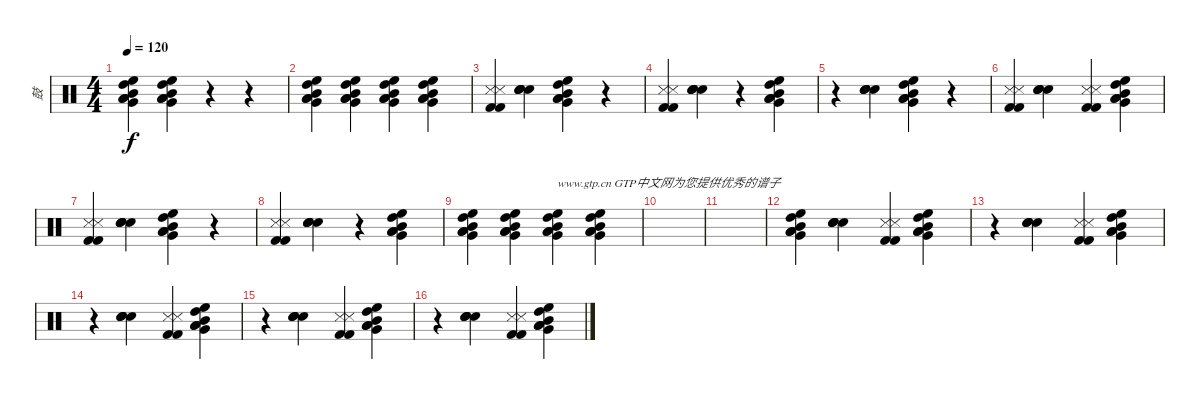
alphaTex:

\track ("鼓" "鼓") {instrument percussion}
\staff {score}
\articulation defaults
\ts (4 4)
\tempo 120
\clef neutral
\ks c
("High Floor Tom (hit)" "High Tom (hit)" "Mid Tom (hit)" "Low Tom (hit)" "Very Low Tom (hit)" "Low Floor Tom (hit)").4{dy f} ("High Floor Tom (hit)" "High Tom (hit)" "Mid Tom (hit)" "Low Tom (hit)" "Very Low Tom (hit)" "Low Floor Tom (hit)").4 r.4 r.4 |
("High Floor Tom (hit)" "High Tom (hit)" "Mid Tom (hit)" "Low Tom (hit)" "Very Low Tom (hit)" "Low Floor Tom (hit)").4 ("High Floor Tom (hit)" "High Tom (hit)" "Mid Tom (hit)" "Low Tom (hit)" "Very Low Tom (hit)" "Low Floor Tom (hit)").4 ("High Floor Tom (hit)" "High Tom (hit)" "Mid Tom (hit)" "Low Tom (hit)" "Very Low Tom (hit)" "Low Floor Tom (hit)").4 ("High Floor Tom (hit)" "High Tom (hit)" "Mid Tom (hit)" "Low Tom (hit)" "Very Low Tom (hit)" "Low Floor Tom (hit)").4 |
("Snare (side stick) 3" "Kick (hit) 2" "Kick (hit) 2" "Snare (side stick) 3").4 ("Hand Clap (hit)" "Hand Clap (hit)" "Hand Clap (hit)" "Hand Clap (hit)").4 ("High Floor Tom (hit)" "High Tom (hit)" "Mid Tom (hit)" "Low Tom (hit)" "Very Low Tom (hit)" "Low Floor Tom (hit)").4 r.4 |
("Snare (side stick) 3" "Kick (hit) 2" "Kick (hit) 2" "Snare (side stick) 3").4 ("Hand Clap (hit)" "Hand Clap (hit)" "Hand Clap (hit)" "Hand Clap (hit)").4 r.4 ("High Floor Tom (hit)" "High Tom (hit)" "Mid Tom (hit)" "Low Tom (hit)" "Very Low Tom (hit)" "Low Floor Tom (hit)").4 |
r.4 ("Hand Clap (hit)" "Hand Clap (hit)" "Hand Clap (hit)" "Hand Clap (hit)").4 ("High Floor Tom (hit)" "High Tom (hit)" "Mid Tom (hit)" "Low Tom (hit)" "Very Low Tom (hit)" "Low Floor Tom (hit)").4 r.4 |
("Snare (side stick) 3" "Kick (hit) 2" "Kick (hit) 2" "Snare (side stick) 3").4 ("Hand Clap (hit)" "Hand Clap (hit)" "Hand Clap (hit)" "Hand Clap (hit)").4 ("Snare (side stick) 3" "Kick (hit) 2" "Kick (hit) 2" "Snare (side stick) 3").4 ("High Floor Tom (hit)" "High Tom (hit)" "Mid Tom (hit)" "Low Tom (hit)" "Very Low Tom (hit)" "Low Floor Tom (hit)").4 |
("Snare (side stick) 3" "Kick (hit) 2" "Kick (hit) 2" "Snare (side stick) 3").4 ("Hand Clap (hit)" "Hand Clap (hit)" "Hand Clap (hit)" "Hand Clap (hit)").4 ("High Floor Tom (hit)" "High Tom (hit)" "Mid Tom (hit)" "Low Tom (hit)" "Very Low Tom (hit)" "Low Floor Tom (hit)").4 r.4 |
("Snare (side stick) 3" "Kick (hit) 2" "Kick (hit) 2" "Snare (side stick) 3").4 ("Hand Clap (hit)" "Hand Clap (hit)" "Hand Clap (hit)" "Hand Clap (hit)").4 r.4 ("High Floor Tom (hit)" "High Tom (hit)" "Mid Tom (hit)" "Low Tom (hit)" "Very Low Tom (hit)" "Low Floor Tom (hit)").4 |
("High Floor Tom (hit)" "High Tom (hit)" "Mid Tom (hit)" "Low Tom (hit)" "Very Low Tom (hit)" "Low Floor Tom (hit)").4 ("High Floor Tom (hit)" "High Tom (hit)" "Mid Tom (hit)" "Low Tom (hit)" "Very Low Tom (hit)" "Low Floor Tom (hit)").4 ("High Floor Tom (hit)" "High Tom (hit)" "Mid Tom (hit)" "Low Tom (hit)" "Very Low Tom (hit)" "Low Floor Tom (hit)").4{txt "www.gtp.cn GTP中文网为您提供优秀的谱子"} ("High Floor Tom (hit)" "High Tom (hit)" "Mid Tom (hit)" "Low Tom (hit)" "Very Low Tom (hit)" "Low Floor Tom (hit)").4 |
|
|
("High Floor Tom (hit)" "High Tom (hit)" "Mid Tom (hit)" "Low Tom (hit)" "Very Low Tom (hit)" "Low Floor Tom (hit)").4 ("Hand Clap (hit)" "Hand Clap (hit)" "Hand Clap (hit)" "Hand Clap (hit)").4 ("Snare (side stick) 3" "Kick (hit) 2" "Kick (hit) 2" "Snare (side stick) 3").4 ("High Floor Tom (hit)" "High Tom (hit)" "Mid Tom (hit)" "Low Tom (hit)" "Very Low Tom (hit)" "Low Floor Tom (hit)").4 |
r.4 ("Hand Clap (hit)" "Hand Clap (hit)" "Hand Clap (hit)" "Hand Clap (hit)").4 ("Snare (side stick) 3" "Kick (hit) 2" "Kick (hit) 2" "Snare (side stick) 3").4 ("High Floor Tom (hit)" "High Tom (hit)" "Mid Tom (hit)" "Low Tom (hit)" "Very Low Tom (hit)" "Low Floor Tom (hit)").4 |
r.4 ("Hand Clap (hit)" "Hand Clap (hit)" "Hand Clap (hit)" "Hand Clap (hit)").4 ("Snare (side stick) 3" "Kick (hit) 2" "Kick (hit) 2" "Snare (side stick) 3").4 ("High Floor Tom (hit)" "High Tom (hit)" "Mid Tom (hit)" "Low Tom (hit)" "Very Low Tom (hit)" "Low Floor Tom (hit)").4 |
r.4 ("Hand Clap (hit)" "Hand Clap (hit)" "Hand Clap (hit)" "Hand Clap (hit)").4 ("Snare (side stick) 3" "Kick (hit) 2" "Kick (hit) 2" "Snare (side stick) 3").4 ("High Floor Tom (hit)" "High Tom (hit)" "Mid Tom (hit)" "Low Tom (hit)" "Very Low Tom (hit)" "Low Floor Tom (hit)").4 |
r.4 ("Hand Clap (hit)" "Hand Clap (hit)" "Hand Clap (hit)" "Hand Clap (hit)").4 ("Snare (side stick) 3" "Kick (hit) 2" "Kick (hit) 2" "Snare (side stick) 3").4 ("High Floor Tom (hit)" "High Tom (hit)" "Mid Tom (hit)" "Low Tom (hit)" "Very Low Tom (hit)" "Low Floor Tom (hit)").4
